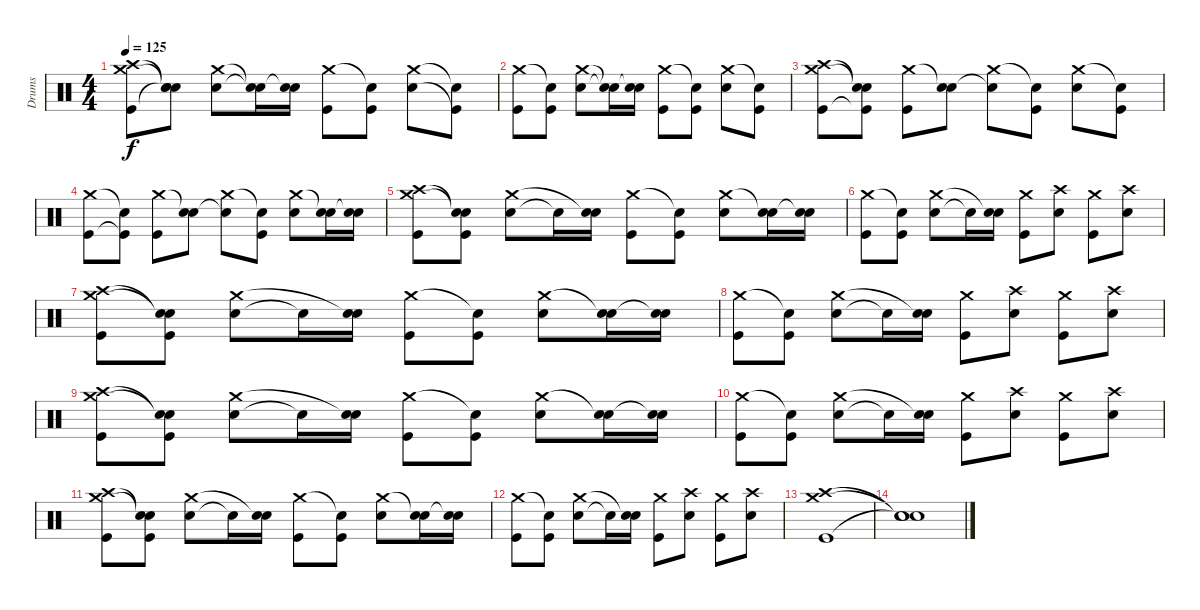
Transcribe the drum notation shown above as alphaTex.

\track ("Drums" "Drums") {instrument percussion}
\staff {score}
\articulation defaults
\ts (4 4)
\tempo 125
\clef neutral
\ks c
("Kick (hit)" "Crash medium (hit)" "Crash high (hit)").8{dy f} ("Snare (hit)"{t} "Snare (hit)"{t} "Snare (hit)"{t}).8 ("Snare (hit) 2" "Crash medium (hit)").8 ("Snare (hit)"{t} "Snare (hit)"{t}).16 ("Snare (hit) 2" "Snare (hit)"{t}).16 ("Kick (hit)" "Crash medium (hit)").8 ("Kick (hit)" "Snare (hit)"{t}).8 ("Snare (hit) 2" "Crash medium (hit)").8 ("Kick (hit)"{t} "Snare (hit)"{t}).8 |
("Kick (hit)" "Crash medium (hit)").8 ("Kick (hit)" "Snare (hit)"{t}).8 ("Snare (hit) 2" "Crash medium (hit)").8 ("Snare (hit)"{t} "Snare (hit)"{t}).16 ("Snare (hit) 2" "Snare (hit)"{t}).16 ("Kick (hit)" "Crash medium (hit)").8 ("Kick (hit)" "Snare (hit)"{t}).8 ("Snare (hit) 2" "Crash medium (hit)").8 ("Kick (hit)" "Snare (hit)"{t}).8 |
("Kick (hit)" "Crash medium (hit)" "Crash high (hit)").8 ("Kick (hit)"{t} "Snare (hit)"{t} "Snare (hit)"{t}).8 ("Kick (hit)" "Crash medium (hit)").8 ("Snare (hit) 2" "Snare (hit)"{t}).8 ("Snare (hit)"{t} "Crash medium (hit)").8 ("Kick (hit)" "Snare (hit)"{t}).8 ("Snare (hit) 2" "Crash medium (hit)").8 ("Kick (hit)" "Snare (hit)"{t}).8 |
("Kick (hit)" "Crash medium (hit)").8 ("Kick (hit)"{t} "Snare (hit)"{t}).8 ("Kick (hit)" "Crash medium (hit)").8 ("Snare (hit) 2" "Snare (hit)"{t}).8 ("Snare (hit)"{t} "Crash medium (hit)").8 ("Kick (hit)" "Snare (hit)"{t}).8 ("Snare (hit) 2" "Crash medium (hit)").8 ("Snare (hit) 2" "Snare (hit)"{t}).16 ("Snare (hit) 2" "Snare (hit)"{t}).16 |
("Kick (hit)" "Crash medium (hit)" "Crash high (hit)").8 ("Kick (hit)" "Snare (hit)"{t} "Snare (hit)"{t}).8 ("Snare (hit) 2" "Crash medium (hit)").8 "Snare (hit)"{t}.16 ("Snare (hit) 2" "Snare (hit)"{t}).16 ("Kick (hit)" "Crash medium (hit)").8 ("Kick (hit)" "Snare (hit)"{t}).8 ("Snare (hit) 2" "Crash medium (hit)").8 ("Snare (hit) 2" "Snare (hit)"{t}).16 ("Snare (hit) 2" "Snare (hit)"{t}).16 |
("Kick (hit)" "Crash medium (hit)").8 ("Kick (hit)" "Snare (hit)"{t}).8 ("Snare (hit) 2" "Crash medium (hit)").8 "Snare (hit)"{t}.16 ("Snare (hit) 2" "Snare (hit)"{t}).16 ("Kick (hit)" "Crash medium (hit)").8 ("Snare (hit) 2" "Crash high (hit)").8 ("Kick (hit)" "Crash medium (hit)").8 ("Snare (hit) 2" "Crash high (hit)").8 |
("Kick (hit)" "Crash medium (hit)" "Crash high (hit)").8 ("Kick (hit)" "Snare (hit)"{t} "Snare (hit)"{t}).8 ("Snare (hit) 2" "Crash medium (hit)").8 "Snare (hit)"{t}.16 ("Snare (hit) 2" "Snare (hit)"{t}).16 ("Kick (hit)" "Crash medium (hit)").8 ("Kick (hit)" "Snare (hit)"{t}).8 ("Snare (hit) 2" "Crash medium (hit)").8 ("Snare (hit) 2" "Snare (hit)"{t}).16 ("Snare (hit) 2" "Snare (hit)"{t}).16 |
("Kick (hit)" "Crash medium (hit)").8 ("Kick (hit)" "Snare (hit)"{t}).8 ("Snare (hit) 2" "Crash medium (hit)").8 "Snare (hit)"{t}.16 ("Snare (hit) 2" "Snare (hit)"{t}).16 ("Kick (hit)" "Crash medium (hit)").8 ("Snare (hit) 2" "Crash high (hit)").8 ("Kick (hit)" "Crash medium (hit)").8 ("Snare (hit) 2" "Crash high (hit)").8 |
("Kick (hit)" "Crash medium (hit)" "Crash high (hit)").8 ("Kick (hit)" "Snare (hit)"{t} "Snare (hit)"{t}).8 ("Snare (hit) 2" "Crash medium (hit)").8 "Snare (hit)"{t}.16 ("Snare (hit) 2" "Snare (hit)"{t}).16 ("Kick (hit)" "Crash medium (hit)").8 ("Kick (hit)" "Snare (hit)"{t}).8 ("Snare (hit) 2" "Crash medium (hit)").8 ("Snare (hit) 2" "Snare (hit)"{t}).16 ("Snare (hit) 2" "Snare (hit)"{t}).16 |
("Kick (hit)" "Crash medium (hit)").8 ("Kick (hit)" "Snare (hit)"{t}).8 ("Snare (hit) 2" "Crash medium (hit)").8 "Snare (hit)"{t}.16 ("Snare (hit) 2" "Snare (hit)"{t}).16 ("Kick (hit)" "Crash medium (hit)").8 ("Snare (hit) 2" "Crash high (hit)").8 ("Kick (hit)" "Crash medium (hit)").8 ("Snare (hit) 2" "Crash high (hit)").8 |
("Kick (hit)" "Crash medium (hit)" "Crash high (hit)").8 ("Kick (hit)" "Snare (hit)"{t} "Snare (hit)"{t}).8 ("Snare (hit) 2" "Crash medium (hit)").8 "Snare (hit)"{t}.16 ("Snare (hit) 2" "Snare (hit)"{t}).16 ("Kick (hit)" "Crash medium (hit)").8 ("Kick (hit)" "Snare (hit)"{t}).8 ("Snare (hit) 2" "Crash medium (hit)").8 ("Snare (hit) 2" "Snare (hit)"{t}).16 ("Snare (hit) 2" "Snare (hit)"{t}).16 |
("Kick (hit)" "Crash medium (hit)").8 ("Kick (hit)" "Snare (hit)"{t}).8 ("Snare (hit) 2" "Crash medium (hit)").8 "Snare (hit)"{t}.16 ("Snare (hit) 2" "Snare (hit)"{t}).16 ("Kick (hit)" "Crash medium (hit)").8 ("Snare (hit) 2" "Crash high (hit)").8 ("Kick (hit)" "Crash medium (hit)").8 ("Snare (hit) 2" "Crash high (hit)").8 |
("Kick (hit)" "Crash medium (hit)" "Crash high (hit)").1 |
("Snare (hit)"{t} "Snare (hit)"{t} "Snare (hit)"{t}).1
